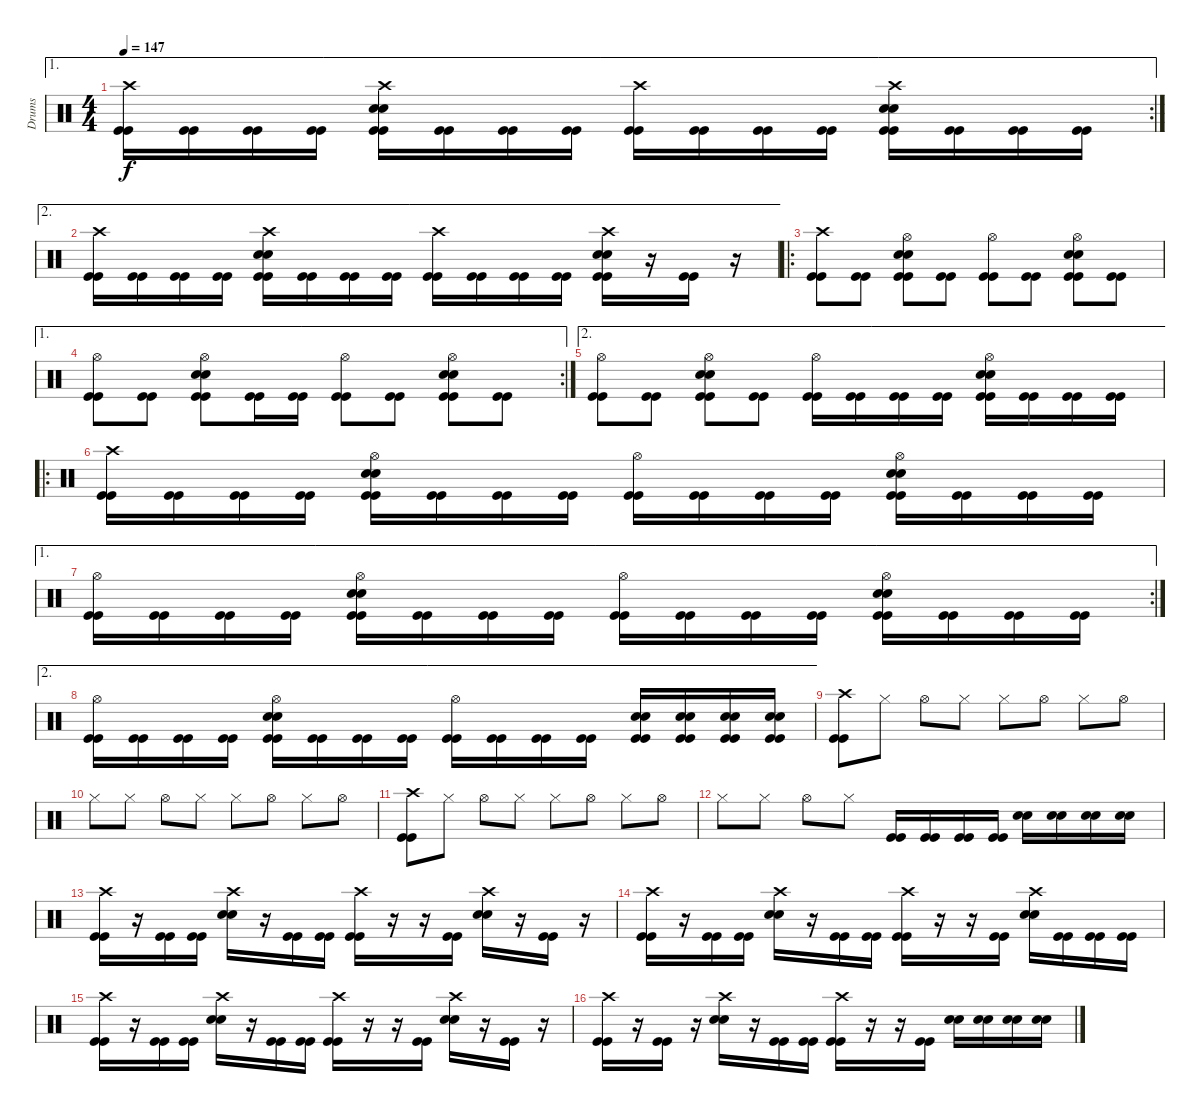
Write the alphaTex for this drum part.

\track ("Drums" "Drums") {instrument percussion}
\staff {score}
\articulation defaults
\ae 1
\rc 2
\ts (4 4)
\tempo 147
\clef neutral
\ks c
("Crash high (hit)" "Kick (hit)" "Kick (hit)").16{dy f} ("Kick (hit)" "Kick (hit)").16 ("Kick (hit)" "Kick (hit)").16 ("Kick (hit)" "Kick (hit)").16 ("Crash high (hit)" "Snare (hit) 2" "Snare (hit) 2" "Kick (hit)" "Kick (hit)").16 ("Kick (hit)" "Kick (hit)").16 ("Kick (hit)" "Kick (hit)").16 ("Kick (hit)" "Kick (hit)").16 ("Crash high (hit)" "Kick (hit)" "Kick (hit)").16 ("Kick (hit)" "Kick (hit)").16 ("Kick (hit)" "Kick (hit)").16 ("Kick (hit)" "Kick (hit)").16 ("Crash high (hit)" "Snare (hit) 2" "Snare (hit) 2" "Kick (hit)" "Kick (hit)").16 ("Kick (hit)" "Kick (hit)").16 ("Kick (hit)" "Kick (hit)").16 ("Kick (hit)" "Kick (hit)").16 |
\ae 2
("Crash high (hit)" "Kick (hit)" "Kick (hit)").16 ("Kick (hit)" "Kick (hit)").16 ("Kick (hit)" "Kick (hit)").16 ("Kick (hit)" "Kick (hit)").16 ("Crash high (hit)" "Snare (hit) 2" "Snare (hit) 2" "Kick (hit)" "Kick (hit)").16 ("Kick (hit)" "Kick (hit)").16 ("Kick (hit)" "Kick (hit)").16 ("Kick (hit)" "Kick (hit)").16 ("Crash high (hit)" "Kick (hit)" "Kick (hit)").16 ("Kick (hit)" "Kick (hit)").16 ("Kick (hit)" "Kick (hit)").16 ("Kick (hit)" "Kick (hit)").16 ("Crash high (hit)" "Snare (hit) 2" "Snare (hit) 2" "Kick (hit)" "Kick (hit)").16 r.16 ("Kick (hit)" "Kick (hit)").16 r.16 |
\ro
("Crash high (hit)" "Kick (hit)" "Kick (hit)").8 ("Kick (hit)" "Kick (hit)").8 ("Hi-Hat (open)" "Snare (hit) 2" "Snare (hit) 2" "Kick (hit)" "Kick (hit)").8 ("Kick (hit)" "Kick (hit)").8 ("Hi-Hat (open)" "Kick (hit)" "Kick (hit)").8 ("Kick (hit)" "Kick (hit)").8 ("Hi-Hat (open)" "Snare (hit) 2" "Snare (hit) 2" "Kick (hit)" "Kick (hit)").8 ("Kick (hit)" "Kick (hit)").8 |
\ae 1
\rc 2
("Hi-Hat (open)" "Kick (hit)" "Kick (hit)").8 ("Kick (hit)" "Kick (hit)").8 ("Hi-Hat (open)" "Snare (hit) 2" "Snare (hit) 2" "Kick (hit)" "Kick (hit)").8 ("Kick (hit)" "Kick (hit)").16 ("Kick (hit)" "Kick (hit)").16 ("Hi-Hat (open)" "Kick (hit)" "Kick (hit)").8 ("Kick (hit)" "Kick (hit)").8 ("Hi-Hat (open)" "Snare (hit) 2" "Snare (hit) 2" "Kick (hit)" "Kick (hit)").8 ("Kick (hit)" "Kick (hit)").8 |
\ae 2
("Hi-Hat (open)" "Kick (hit)" "Kick (hit)").8 ("Kick (hit)" "Kick (hit)").8 ("Hi-Hat (open)" "Snare (hit) 2" "Snare (hit) 2" "Kick (hit)" "Kick (hit)").8 ("Kick (hit)" "Kick (hit)").8 ("Hi-Hat (open)" "Kick (hit)" "Kick (hit)").16 ("Kick (hit)" "Kick (hit)").16 ("Kick (hit)" "Kick (hit)").16 ("Kick (hit)" "Kick (hit)").16 ("Hi-Hat (open)" "Snare (hit) 2" "Snare (hit) 2" "Kick (hit)" "Kick (hit)").16 ("Kick (hit)" "Kick (hit)").16 ("Kick (hit)" "Kick (hit)").16 ("Kick (hit)" "Kick (hit)").16 |
\ro
("Crash high (hit)" "Kick (hit)" "Kick (hit)").16 ("Kick (hit)" "Kick (hit)").16 ("Kick (hit)" "Kick (hit)").16 ("Kick (hit)" "Kick (hit)").16 ("Hi-Hat (open)" "Snare (hit) 2" "Snare (hit) 2" "Kick (hit)" "Kick (hit)").16 ("Kick (hit)" "Kick (hit)").16 ("Kick (hit)" "Kick (hit)").16 ("Kick (hit)" "Kick (hit)").16 ("Hi-Hat (open)" "Kick (hit)" "Kick (hit)").16 ("Kick (hit)" "Kick (hit)").16 ("Kick (hit)" "Kick (hit)").16 ("Kick (hit)" "Kick (hit)").16 ("Hi-Hat (open)" "Snare (hit) 2" "Snare (hit) 2" "Kick (hit)" "Kick (hit)").16 ("Kick (hit)" "Kick (hit)").16 ("Kick (hit)" "Kick (hit)").16 ("Kick (hit)" "Kick (hit)").16 |
\ae 1
\rc 2
("Hi-Hat (open)" "Kick (hit)" "Kick (hit)").16 ("Kick (hit)" "Kick (hit)").16 ("Kick (hit)" "Kick (hit)").16 ("Kick (hit)" "Kick (hit)").16 ("Hi-Hat (open)" "Snare (hit) 2" "Snare (hit) 2" "Kick (hit)" "Kick (hit)").16 ("Kick (hit)" "Kick (hit)").16 ("Kick (hit)" "Kick (hit)").16 ("Kick (hit)" "Kick (hit)").16 ("Hi-Hat (open)" "Kick (hit)" "Kick (hit)").16 ("Kick (hit)" "Kick (hit)").16 ("Kick (hit)" "Kick (hit)").16 ("Kick (hit)" "Kick (hit)").16 ("Hi-Hat (open)" "Snare (hit) 2" "Snare (hit) 2" "Kick (hit)" "Kick (hit)").16 ("Kick (hit)" "Kick (hit)").16 ("Kick (hit)" "Kick (hit)").16 ("Kick (hit)" "Kick (hit)").16 |
\ae 2
("Hi-Hat (open)" "Kick (hit)" "Kick (hit)").16 ("Kick (hit)" "Kick (hit)").16 ("Kick (hit)" "Kick (hit)").16 ("Kick (hit)" "Kick (hit)").16 ("Hi-Hat (open)" "Snare (hit) 2" "Snare (hit) 2" "Kick (hit)" "Kick (hit)").16 ("Kick (hit)" "Kick (hit)").16 ("Kick (hit)" "Kick (hit)").16 ("Kick (hit)" "Kick (hit)").16 ("Hi-Hat (open)" "Kick (hit)" "Kick (hit)").16 ("Kick (hit)" "Kick (hit)").16 ("Kick (hit)" "Kick (hit)").16 ("Kick (hit)" "Kick (hit)").16 ("Snare (hit) 2" "Snare (hit) 2" "Kick (hit)" "Kick (hit)").16 ("Snare (hit) 2" "Snare (hit) 2" "Kick (hit)" "Kick (hit)").16 ("Snare (hit) 2" "Snare (hit) 2" "Kick (hit)" "Kick (hit)").16 ("Snare (hit) 2" "Snare (hit) 2" "Kick (hit)" "Kick (hit)").16 |
("Crash high (hit)" "Kick (hit)" "Kick (hit)").8 "Hi-Hat (closed)".8 "Hi-Hat (open)".8 "Hi-Hat (closed)".8 "Hi-Hat (closed)".8 "Hi-Hat (open)".8 "Hi-Hat (closed)".8 "Hi-Hat (open)".8 |
"Hi-Hat (closed)".8 "Hi-Hat (closed)".8 "Hi-Hat (open)".8 "Hi-Hat (closed)".8 "Hi-Hat (closed)".8 "Hi-Hat (open)".8 "Hi-Hat (closed)".8 "Hi-Hat (open)".8 |
("Crash high (hit)" "Kick (hit)" "Kick (hit)").8 "Hi-Hat (closed)".8 "Hi-Hat (open)".8 "Hi-Hat (closed)".8 "Hi-Hat (closed)".8 "Hi-Hat (open)".8 "Hi-Hat (closed)".8 "Hi-Hat (open)".8 |
"Hi-Hat (closed)".8 "Hi-Hat (closed)".8 "Hi-Hat (open)".8 "Hi-Hat (closed)".8 ("Kick (hit)" "Kick (hit)").16 ("Kick (hit)" "Kick (hit)").16 ("Kick (hit)" "Kick (hit)").16 ("Kick (hit)" "Kick (hit)").16 ("Snare (hit) 2" "Snare (hit) 2").16 ("Snare (hit) 2" "Snare (hit) 2").16 ("Snare (hit) 2" "Snare (hit) 2").16 ("Snare (hit) 2" "Snare (hit) 2").16 |
("Crash high (hit)" "Kick (hit)" "Kick (hit)").16 r.16 ("Kick (hit)" "Kick (hit)").16 ("Kick (hit)" "Kick (hit)").16 ("Crash high (hit)" "Snare (hit) 2" "Snare (hit) 2").16 r.16 ("Kick (hit)" "Kick (hit)").16 ("Kick (hit)" "Kick (hit)").16 ("Crash high (hit)" "Kick (hit)" "Kick (hit)").16 r.16 r.16 ("Kick (hit)" "Kick (hit)").16 ("Crash high (hit)" "Snare (hit) 2" "Snare (hit) 2").16 r.16 ("Kick (hit)" "Kick (hit)").16 r.16 |
("Crash high (hit)" "Kick (hit)" "Kick (hit)").16 r.16 ("Kick (hit)" "Kick (hit)").16 ("Kick (hit)" "Kick (hit)").16 ("Crash high (hit)" "Snare (hit) 2" "Snare (hit) 2").16 r.16 ("Kick (hit)" "Kick (hit)").16 ("Kick (hit)" "Kick (hit)").16 ("Crash high (hit)" "Kick (hit)" "Kick (hit)").16 r.16 r.16 ("Kick (hit)" "Kick (hit)").16 ("Crash high (hit)" "Snare (hit) 2" "Snare (hit) 2").16 ("Kick (hit)" "Kick (hit)").16 ("Kick (hit)" "Kick (hit)").16 ("Kick (hit)" "Kick (hit)").16 |
("Crash high (hit)" "Kick (hit)" "Kick (hit)").16 r.16 ("Kick (hit)" "Kick (hit)").16 ("Kick (hit)" "Kick (hit)").16 ("Crash high (hit)" "Snare (hit) 2" "Snare (hit) 2").16 r.16 ("Kick (hit)" "Kick (hit)").16 ("Kick (hit)" "Kick (hit)").16 ("Crash high (hit)" "Kick (hit)" "Kick (hit)").16 r.16 r.16 ("Kick (hit)" "Kick (hit)").16 ("Crash high (hit)" "Snare (hit) 2" "Snare (hit) 2").16 r.16 ("Kick (hit)" "Kick (hit)").16 r.16 |
("Crash high (hit)" "Kick (hit)" "Kick (hit)").16 r.16 ("Kick (hit)" "Kick (hit)").16 r.16 ("Crash high (hit)" "Snare (hit) 2" "Snare (hit) 2").16 r.16 ("Kick (hit)" "Kick (hit)").16 ("Kick (hit)" "Kick (hit)").16 ("Crash high (hit)" "Kick (hit)" "Kick (hit)").16 r.16 r.16 ("Kick (hit)" "Kick (hit)").16 ("Snare (hit) 2" "Snare (hit) 2").16 ("Snare (hit) 2" "Snare (hit) 2").16 ("Snare (hit) 2" "Snare (hit) 2").16 ("Snare (hit) 2" "Snare (hit) 2").16
